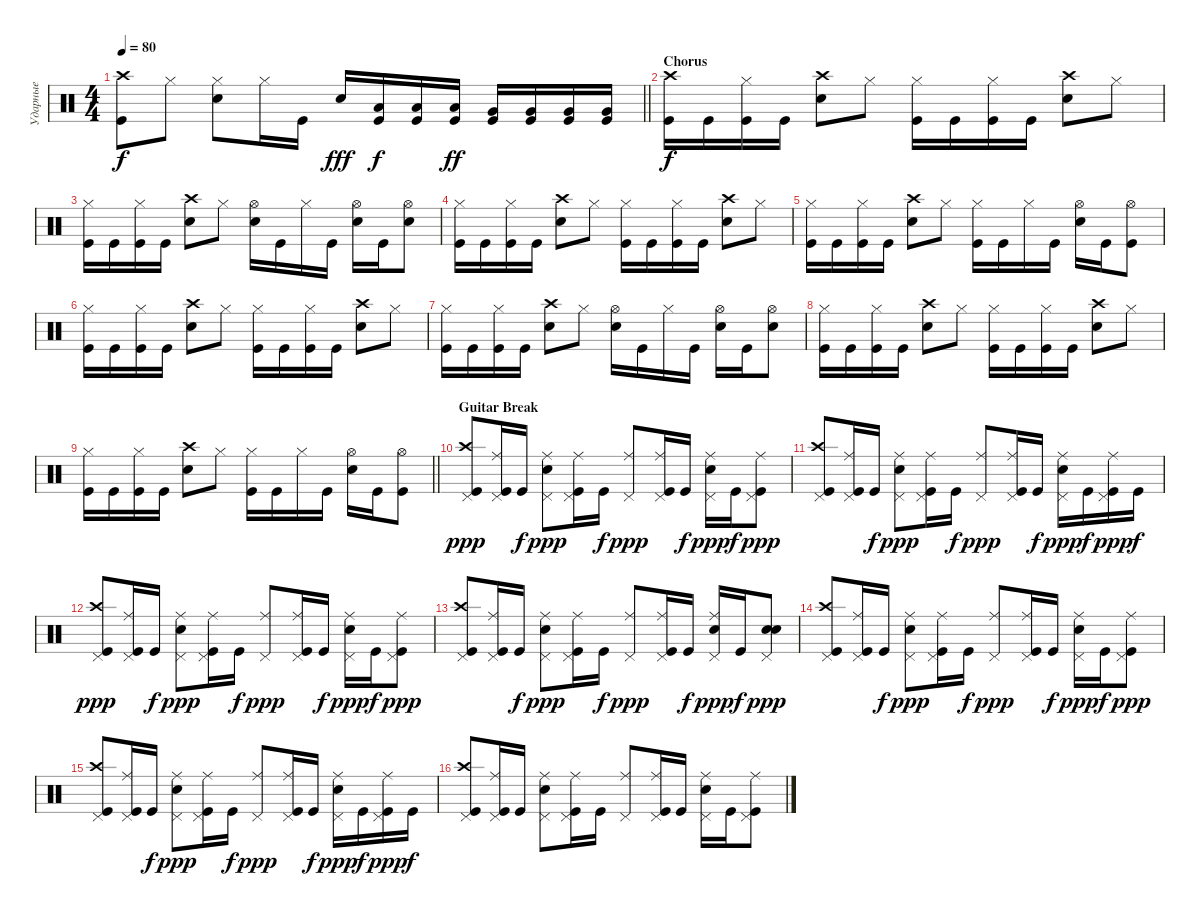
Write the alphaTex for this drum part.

\track ("Ударные" "Ударные") {instrument percussion}
\staff {score}
\articulation defaults
\ts (4 4)
\tempo 80
\clef neutral
\barLineRight lightlight
\ks aminor
("Kick (hit)" "Crash high (hit)").8{dy f} "Hi-Hat (closed)".8 ("Hi-Hat (closed)" "Snare (hit) 2").8 "Hi-Hat (closed)".16 "Kick (hit)".16 "Snare (hit) 2".16{bd 480 dy fff} ("Kick (hit)" "Low Tom (hit)").16{dy f} ("Kick (hit)" "Low Tom (hit)").16 ("Kick (hit)" "Low Tom (hit)").16{dy ff} ("Kick (hit)" "Very Low Tom (hit)").16 ("Kick (hit)" "Very Low Tom (hit)").16 ("Kick (hit)" "Very Low Tom (hit)").16 ("Kick (hit)" "Very Low Tom (hit)").16 |
\section ("" "Chorus")
("Kick (hit)" "Crash high (hit)").16{dy f} "Kick (hit)".16 ("Kick (hit)" "Hi-Hat (closed)").16 "Kick (hit)".16 ("Snare (hit) 2" "Crash high (hit)").8 "Hi-Hat (closed)".8 ("Kick (hit)" "Hi-Hat (closed)").16 "Kick (hit)".16 ("Kick (hit)" "Hi-Hat (closed)").16 "Kick (hit)".16 ("Snare (hit) 2" "Crash high (hit)").8 "Hi-Hat (closed)".8 |
("Kick (hit)" "Hi-Hat (closed)").16 "Kick (hit)".16 ("Kick (hit)" "Hi-Hat (closed)").16 "Kick (hit)".16 ("Snare (hit) 2" "Crash high (hit)").8 "Hi-Hat (closed)".8 ("Hi-Hat (open)" "Snare (hit) 2").16 "Kick (hit)".16 "Hi-Hat (closed)".16 "Kick (hit)".16 ("Snare (hit) 2" "Hi-Hat (open)").16 "Kick (hit)".16 ("Hi-Hat (open)" "Snare (hit) 2").8 |
("Kick (hit)" "Hi-Hat (closed)").16 "Kick (hit)".16 ("Kick (hit)" "Hi-Hat (closed)").16 "Kick (hit)".16 ("Snare (hit) 2" "Crash high (hit)").8 "Hi-Hat (closed)".8 ("Kick (hit)" "Hi-Hat (closed)").16 "Kick (hit)".16 ("Kick (hit)" "Hi-Hat (closed)").16 "Kick (hit)".16 ("Snare (hit) 2" "Crash high (hit)").8 "Hi-Hat (closed)".8 |
("Kick (hit)" "Hi-Hat (closed)").16 "Kick (hit)".16 ("Kick (hit)" "Hi-Hat (closed)").16 "Kick (hit)".16 ("Snare (hit) 2" "Crash high (hit)").8 "Hi-Hat (closed)".8 ("Hi-Hat (closed)" "Kick (hit)").16 "Kick (hit)".16 "Hi-Hat (closed)".16 "Kick (hit)".16 ("Snare (hit) 2" "Hi-Hat (open)").16 "Kick (hit)".16 ("Hi-Hat (open)" "Kick (hit)").8 |
("Kick (hit)" "Hi-Hat (closed)").16 "Kick (hit)".16 ("Kick (hit)" "Hi-Hat (closed)").16 "Kick (hit)".16 ("Snare (hit) 2" "Crash high (hit)").8 "Hi-Hat (closed)".8 ("Kick (hit)" "Hi-Hat (closed)").16 "Kick (hit)".16 ("Kick (hit)" "Hi-Hat (closed)").16 "Kick (hit)".16 ("Snare (hit) 2" "Crash high (hit)").8 "Hi-Hat (closed)".8 |
("Kick (hit)" "Hi-Hat (closed)").16 "Kick (hit)".16 ("Kick (hit)" "Hi-Hat (closed)").16 "Kick (hit)".16 ("Snare (hit) 2" "Crash high (hit)").8 "Hi-Hat (closed)".8 ("Hi-Hat (open)" "Snare (hit) 2").16 "Kick (hit)".16 "Hi-Hat (closed)".16 "Kick (hit)".16 ("Snare (hit) 2" "Hi-Hat (open)").16 "Kick (hit)".16 ("Hi-Hat (open)" "Snare (hit) 2").8 |
("Kick (hit)" "Hi-Hat (closed)").16 "Kick (hit)".16 ("Kick (hit)" "Hi-Hat (closed)").16 "Kick (hit)".16 ("Snare (hit) 2" "Crash high (hit)").8 "Hi-Hat (closed)".8 ("Kick (hit)" "Hi-Hat (closed)").16 "Kick (hit)".16 ("Kick (hit)" "Hi-Hat (closed)").16 "Kick (hit)".16 ("Snare (hit) 2" "Crash high (hit)").8 "Hi-Hat (closed)".8 |
\barLineRight lightlight
("Kick (hit)" "Hi-Hat (closed)").16 "Kick (hit)".16 ("Kick (hit)" "Hi-Hat (closed)").16 "Kick (hit)".16 ("Snare (hit) 2" "Crash high (hit)").8 "Hi-Hat (closed)".8 ("Hi-Hat (closed)" "Kick (hit)").16 "Kick (hit)".16 "Hi-Hat (closed)".16 "Kick (hit)".16 ("Snare (hit) 2" "Hi-Hat (open)").16 "Kick (hit)".16 ("Hi-Hat (open)" "Kick (hit)").8 |
\section ("" "Guitar Break")
("Kick (hit)" "Crash high (hit)" "Pedal Hi-Hat (hit)").8{dy ppp} ("Kick (hit)" "Ride (middle)" "Pedal Hi-Hat (hit)").16 "Kick (hit)".16{dy f} ("Snare (hit) 2" "Ride (middle)" "Pedal Hi-Hat (hit)").8{dy ppp} ("Kick (hit)" "Ride (middle)" "Pedal Hi-Hat (hit)").16 "Kick (hit)".16{dy f} ("Ride (middle)" "Pedal Hi-Hat (hit)").8{dy ppp} ("Kick (hit)" "Ride (middle)" "Pedal Hi-Hat (hit)").16 "Kick (hit)".16{dy f} ("Snare (hit) 2" "Ride (middle)" "Pedal Hi-Hat (hit)").16{dy ppp} "Kick (hit)".16{dy f} ("Kick (hit)" "Ride (middle)" "Pedal Hi-Hat (hit)").8{dy ppp} |
("Kick (hit)" "Crash high (hit)" "Pedal Hi-Hat (hit)").8 ("Kick (hit)" "Ride (middle)" "Pedal Hi-Hat (hit)").16 "Kick (hit)".16{dy f} ("Snare (hit) 2" "Ride (middle)" "Pedal Hi-Hat (hit)").8{dy ppp} ("Kick (hit)" "Ride (middle)" "Pedal Hi-Hat (hit)").16 "Kick (hit)".16{dy f} ("Ride (middle)" "Pedal Hi-Hat (hit)").8{dy ppp} ("Kick (hit)" "Ride (middle)" "Pedal Hi-Hat (hit)").16 "Kick (hit)".16{dy f} ("Snare (hit) 2" "Ride (middle)" "Pedal Hi-Hat (hit)").16{dy ppp} "Kick (hit)".16{dy f} ("Kick (hit)" "Ride (middle)" "Pedal Hi-Hat (hit)").16{dy ppp} "Kick (hit)".16{dy f} |
("Kick (hit)" "Crash high (hit)" "Pedal Hi-Hat (hit)").8{dy ppp} ("Kick (hit)" "Ride (middle)" "Pedal Hi-Hat (hit)").16 "Kick (hit)".16{dy f} ("Snare (hit) 2" "Ride (middle)" "Pedal Hi-Hat (hit)").8{dy ppp} ("Kick (hit)" "Ride (middle)" "Pedal Hi-Hat (hit)").16 "Kick (hit)".16{dy f} ("Ride (middle)" "Pedal Hi-Hat (hit)").8{dy ppp} ("Kick (hit)" "Ride (middle)" "Pedal Hi-Hat (hit)").16 "Kick (hit)".16{dy f} ("Snare (hit) 2" "Ride (middle)" "Pedal Hi-Hat (hit)").16{dy ppp} "Kick (hit)".16{dy f} ("Kick (hit)" "Ride (middle)" "Pedal Hi-Hat (hit)").8{dy ppp} |
("Kick (hit)" "Crash high (hit)" "Pedal Hi-Hat (hit)").8 ("Kick (hit)" "Ride (middle)" "Pedal Hi-Hat (hit)").16 "Kick (hit)".16{dy f} ("Snare (hit) 2" "Ride (middle)" "Pedal Hi-Hat (hit)").8{dy ppp} ("Kick (hit)" "Ride (middle)" "Pedal Hi-Hat (hit)").16 "Kick (hit)".16{dy f} ("Ride (middle)" "Pedal Hi-Hat (hit)").8{dy ppp} ("Kick (hit)" "Ride (middle)" "Pedal Hi-Hat (hit)").16 "Kick (hit)".16{dy f} ("Snare (hit) 2" "Ride (middle)" "Pedal Hi-Hat (hit)").16{dy ppp} "Kick (hit)".16{dy f} ("Snare (hit) 2" "Snare (hit) 2" "Pedal Hi-Hat (hit)").8{bd 120 dy ppp} |
("Kick (hit)" "Crash high (hit)" "Pedal Hi-Hat (hit)").8 ("Kick (hit)" "Ride (middle)" "Pedal Hi-Hat (hit)").16 "Kick (hit)".16{dy f} ("Snare (hit) 2" "Ride (middle)" "Pedal Hi-Hat (hit)").8{dy ppp} ("Kick (hit)" "Ride (middle)" "Pedal Hi-Hat (hit)").16 "Kick (hit)".16{dy f} ("Ride (middle)" "Pedal Hi-Hat (hit)").8{dy ppp} ("Kick (hit)" "Ride (middle)" "Pedal Hi-Hat (hit)").16 "Kick (hit)".16{dy f} ("Snare (hit) 2" "Ride (middle)" "Pedal Hi-Hat (hit)").16{dy ppp} "Kick (hit)".16{dy f} ("Kick (hit)" "Ride (middle)" "Pedal Hi-Hat (hit)").8{dy ppp} |
("Kick (hit)" "Crash high (hit)" "Pedal Hi-Hat (hit)").8 ("Kick (hit)" "Ride (middle)" "Pedal Hi-Hat (hit)").16 "Kick (hit)".16{dy f} ("Snare (hit) 2" "Ride (middle)" "Pedal Hi-Hat (hit)").8{dy ppp} ("Kick (hit)" "Ride (middle)" "Pedal Hi-Hat (hit)").16 "Kick (hit)".16{dy f} ("Ride (middle)" "Pedal Hi-Hat (hit)").8{dy ppp} ("Kick (hit)" "Ride (middle)" "Pedal Hi-Hat (hit)").16 "Kick (hit)".16{dy f} ("Snare (hit) 2" "Ride (middle)" "Pedal Hi-Hat (hit)").16{dy ppp} "Kick (hit)".16{dy f} ("Kick (hit)" "Ride (middle)" "Pedal Hi-Hat (hit)").16{dy ppp} "Kick (hit)".16{dy f} |
("Kick (hit)" "Crash high (hit)" "Pedal Hi-Hat (hit)").8 ("Kick (hit)" "Ride (middle)" "Pedal Hi-Hat (hit)").16 "Kick (hit)".16 ("Snare (hit) 2" "Ride (middle)" "Pedal Hi-Hat (hit)").8 ("Kick (hit)" "Ride (middle)" "Pedal Hi-Hat (hit)").16 "Kick (hit)".16 ("Ride (middle)" "Pedal Hi-Hat (hit)").8 ("Kick (hit)" "Ride (middle)" "Pedal Hi-Hat (hit)").16 "Kick (hit)".16 ("Snare (hit) 2" "Ride (middle)" "Pedal Hi-Hat (hit)").16 "Kick (hit)".16 ("Kick (hit)" "Ride (middle)" "Pedal Hi-Hat (hit)").8
